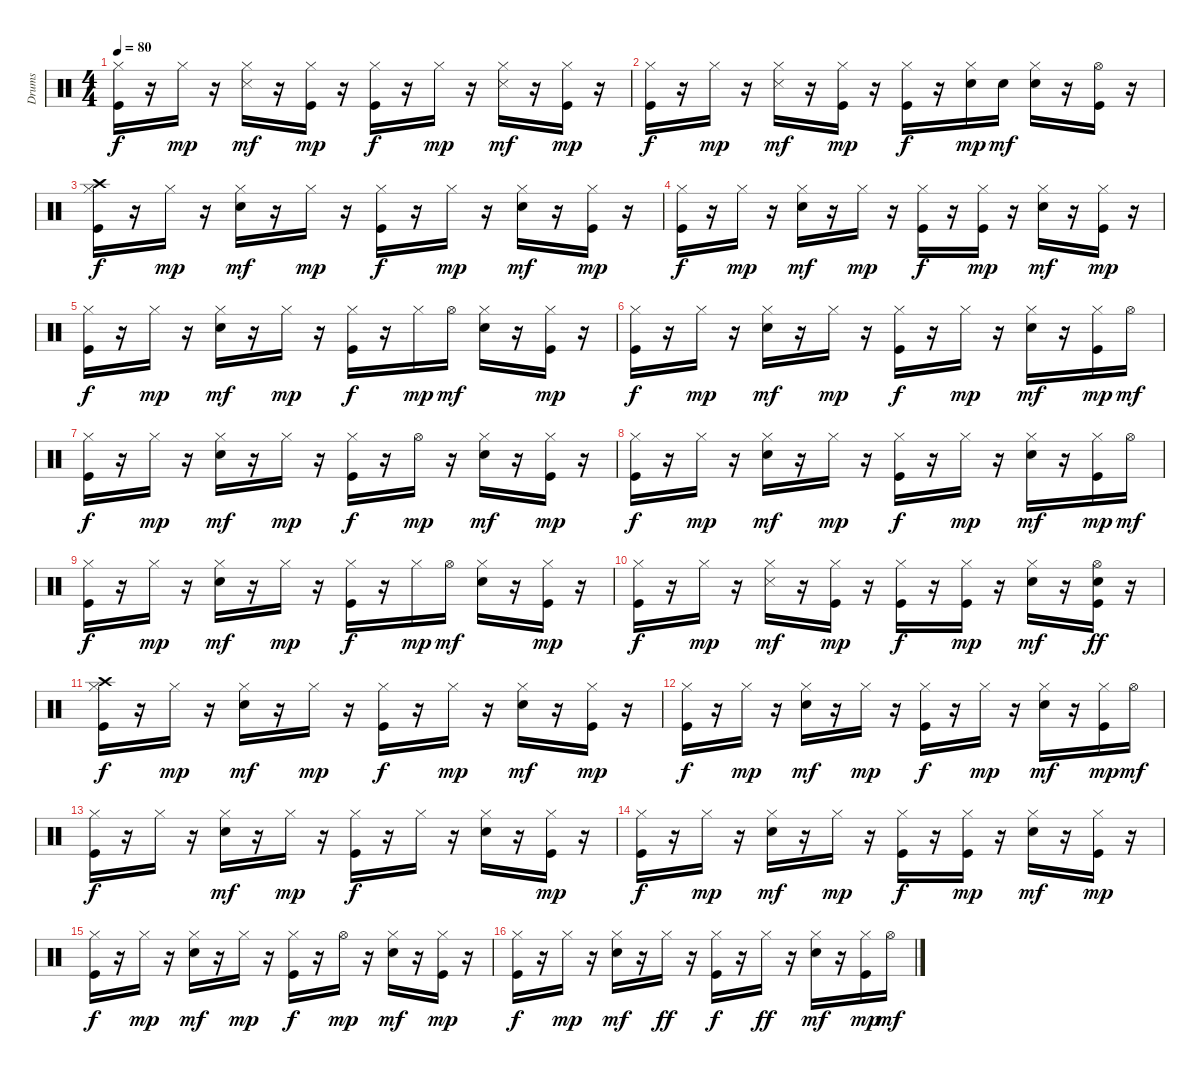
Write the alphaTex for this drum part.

\track ("Drums  " "Drums  ") {instrument percussion}
\staff {score}
\articulation defaults
\ts (4 4)
\tempo 80
\clef neutral
\ks c
("Kick (hit)" "Hi-Hat (closed)").16{dy f} r.16 "Hi-Hat (closed)".16{dy mp} r.16 ("Hi-Hat (closed)" "Snare (side stick) 3").16{dy mf} r.16 ("Kick (hit)" "Hi-Hat (closed)").16{dy mp} r.16 ("Kick (hit)" "Hi-Hat (closed)").16{dy f} r.16 "Hi-Hat (closed)".16{dy mp} r.16 ("Hi-Hat (closed)" "Snare (side stick) 3").16{dy mf} r.16 ("Kick (hit)" "Hi-Hat (closed)").16{dy mp} r.16 |
("Kick (hit)" "Hi-Hat (closed)").16{dy f} r.16 "Hi-Hat (closed)".16{dy mp} r.16 ("Hi-Hat (closed)" "Snare (side stick) 3").16{dy mf} r.16 ("Kick (hit)" "Hi-Hat (closed)").16{dy mp} r.16 ("Kick (hit)" "Hi-Hat (closed)").16{dy f} r.16 ("Snare (hit) 2" "Hi-Hat (closed)").16{dy mp} "Snare (hit) 2".16{dy mf} ("Snare (hit) 2" "Hi-Hat (closed)").16 r.16 ("Kick (hit)" "Hi-Hat (open)").16 r.16 |
("Kick (hit)" "Hi-Hat (closed)" "Crash high (hit)").16{dy f} r.16 "Hi-Hat (closed)".16{dy mp} r.16 ("Snare (hit) 2" "Hi-Hat (closed)").16{dy mf} r.16 "Hi-Hat (closed)".16{dy mp} r.16 ("Kick (hit)" "Hi-Hat (closed)").16{dy f} r.16 "Hi-Hat (closed)".16{dy mp} r.16 ("Snare (hit) 2" "Hi-Hat (closed)").16{dy mf} r.16 ("Kick (hit)" "Hi-Hat (closed)").16{dy mp} r.16 |
("Kick (hit)" "Hi-Hat (closed)").16{dy f} r.16 "Hi-Hat (closed)".16{dy mp} r.16 ("Snare (hit) 2" "Hi-Hat (closed)").16{dy mf} r.16 "Hi-Hat (closed)".16{dy mp} r.16 ("Kick (hit)" "Hi-Hat (closed)").16{dy f} r.16 ("Kick (hit)" "Hi-Hat (closed)").16{dy mp} r.16 ("Snare (hit) 2" "Hi-Hat (closed)").16{dy mf} r.16 ("Kick (hit)" "Hi-Hat (closed)").16{dy mp} r.16 |
("Kick (hit)" "Hi-Hat (closed)").16{dy f} r.16 "Hi-Hat (closed)".16{dy mp} r.16 ("Snare (hit) 2" "Hi-Hat (closed)").16{dy mf} r.16 "Hi-Hat (closed)".16{dy mp} r.16 ("Kick (hit)" "Hi-Hat (closed)").16{dy f} r.16 "Hi-Hat (closed)".16{dy mp} "Hi-Hat (open)".16{dy mf} ("Snare (hit) 2" "Hi-Hat (closed)").16 r.16 ("Kick (hit)" "Hi-Hat (closed)").16{dy mp} r.16 |
("Kick (hit)" "Hi-Hat (closed)").16{dy f} r.16 "Hi-Hat (closed)".16{dy mp} r.16 ("Snare (hit) 2" "Hi-Hat (closed)").16{dy mf} r.16 "Hi-Hat (closed)".16{dy mp} r.16 ("Kick (hit)" "Hi-Hat (closed)").16{dy f} r.16 "Hi-Hat (closed)".16{dy mp} r.16 ("Snare (hit) 2" "Hi-Hat (closed)").16{dy mf} r.16 ("Kick (hit)" "Hi-Hat (closed)").16{dy mp} "Hi-Hat (open)".16{dy mf} |
("Kick (hit)" "Hi-Hat (closed)").16{dy f} r.16 "Hi-Hat (closed)".16{dy mp} r.16 ("Snare (hit) 2" "Hi-Hat (closed)").16{dy mf} r.16 "Hi-Hat (closed)".16{dy mp} r.16 ("Kick (hit)" "Hi-Hat (closed)").16{dy f} r.16 "Hi-Hat (open)".16{dy mp} r.16 ("Snare (hit) 2" "Hi-Hat (closed)").16{dy mf} r.16 ("Kick (hit)" "Hi-Hat (closed)").16{dy mp} r.16 |
("Kick (hit)" "Hi-Hat (closed)").16{dy f} r.16 "Hi-Hat (closed)".16{dy mp} r.16 ("Snare (hit) 2" "Hi-Hat (closed)").16{dy mf} r.16 "Hi-Hat (closed)".16{dy mp} r.16 ("Kick (hit)" "Hi-Hat (closed)").16{dy f} r.16 "Hi-Hat (closed)".16{dy mp} r.16 ("Snare (hit) 2" "Hi-Hat (closed)").16{dy mf} r.16 ("Kick (hit)" "Hi-Hat (closed)").16{dy mp} "Hi-Hat (open)".16{dy mf} |
("Kick (hit)" "Hi-Hat (closed)").16{dy f} r.16 "Hi-Hat (closed)".16{dy mp} r.16 ("Snare (hit) 2" "Hi-Hat (closed)").16{dy mf} r.16 "Hi-Hat (closed)".16{dy mp} r.16 ("Kick (hit)" "Hi-Hat (closed)").16{dy f} r.16 "Hi-Hat (closed)".16{dy mp} "Hi-Hat (open)".16{dy mf} ("Snare (hit) 2" "Hi-Hat (closed)").16 r.16 ("Kick (hit)" "Hi-Hat (closed)").16{dy mp} r.16 |
("Kick (hit)" "Hi-Hat (closed)").16{dy f} r.16 "Hi-Hat (closed)".16{dy mp} r.16 ("Hi-Hat (closed)" "Snare (side stick) 3").16{dy mf} r.16 ("Kick (hit)" "Hi-Hat (closed)").16{dy mp} r.16 ("Kick (hit)" "Hi-Hat (closed)").16{dy f} r.16 ("Kick (hit)" "Hi-Hat (closed)").16{dy mp} r.16 ("Snare (hit) 2" "Hi-Hat (closed)").16{dy mf} r.16 ("Kick (hit)" "Snare (hit) 2" "Hi-Hat (open)").16{dy ff} r.16 |
("Kick (hit)" "Hi-Hat (closed)" "Crash high (hit)").16{dy f} r.16 "Hi-Hat (closed)".16{dy mp} r.16 ("Snare (hit) 2" "Hi-Hat (closed)").16{dy mf} r.16 "Hi-Hat (closed)".16{dy mp} r.16 ("Kick (hit)" "Hi-Hat (closed)").16{dy f} r.16 "Hi-Hat (closed)".16{dy mp} r.16 ("Snare (hit) 2" "Hi-Hat (closed)").16{dy mf} r.16 ("Kick (hit)" "Hi-Hat (closed)").16{dy mp} r.16 |
("Kick (hit)" "Hi-Hat (closed)").16{dy f} r.16 "Hi-Hat (closed)".16{dy mp} r.16 ("Snare (hit) 2" "Hi-Hat (closed)").16{dy mf} r.16 "Hi-Hat (closed)".16{dy mp} r.16 ("Kick (hit)" "Hi-Hat (closed)").16{dy f} r.16 "Hi-Hat (closed)".16{dy mp} r.16 ("Snare (hit) 2" "Hi-Hat (closed)").16{dy mf} r.16 ("Kick (hit)" "Hi-Hat (closed)").16{dy mp} "Hi-Hat (open)".16{dy mf} |
("Kick (hit)" "Hi-Hat (closed)").16{dy f} r.16 "Hi-Hat (closed)".16 r.16 ("Snare (hit) 2" "Hi-Hat (closed)").16{dy mf} r.16 "Hi-Hat (closed)".16{dy mp} r.16 ("Kick (hit)" "Hi-Hat (closed)").16{dy f} r.16 "Hi-Hat (closed)".16 r.16 ("Snare (hit) 2" "Hi-Hat (closed)").16 r.16 ("Kick (hit)" "Hi-Hat (closed)").16{dy mp} r.16 |
("Kick (hit)" "Hi-Hat (closed)").16{dy f} r.16 "Hi-Hat (closed)".16{dy mp} r.16 ("Snare (hit) 2" "Hi-Hat (closed)").16{dy mf} r.16 "Hi-Hat (closed)".16{dy mp} r.16 ("Kick (hit)" "Hi-Hat (closed)").16{dy f} r.16 ("Kick (hit)" "Hi-Hat (closed)").16{dy mp} r.16 ("Snare (hit) 2" "Hi-Hat (closed)").16{dy mf} r.16 ("Kick (hit)" "Hi-Hat (closed)").16{dy mp} r.16 |
("Kick (hit)" "Hi-Hat (closed)").16{dy f} r.16 "Hi-Hat (closed)".16{dy mp} r.16 ("Snare (hit) 2" "Hi-Hat (closed)").16{dy mf} r.16 "Hi-Hat (closed)".16{dy mp} r.16 ("Kick (hit)" "Hi-Hat (closed)").16{dy f} r.16 "Hi-Hat (open)".16{dy mp} r.16 ("Snare (hit) 2" "Hi-Hat (closed)").16{dy mf} r.16 ("Kick (hit)" "Hi-Hat (closed)").16{dy mp} r.16 |
("Kick (hit)" "Hi-Hat (closed)").16{dy f} r.16 "Hi-Hat (closed)".16{dy mp} r.16 ("Snare (hit) 2" "Hi-Hat (closed)").16{dy mf} r.16 "Hi-Hat (closed)".16{dy ff} r.16 ("Kick (hit)" "Hi-Hat (closed)").16{dy f} r.16 "Hi-Hat (closed)".16{dy ff} r.16 ("Snare (hit) 2" "Hi-Hat (closed)").16{dy mf} r.16 ("Kick (hit)" "Hi-Hat (closed)").16{dy mp} "Hi-Hat (open)".16{dy mf}
